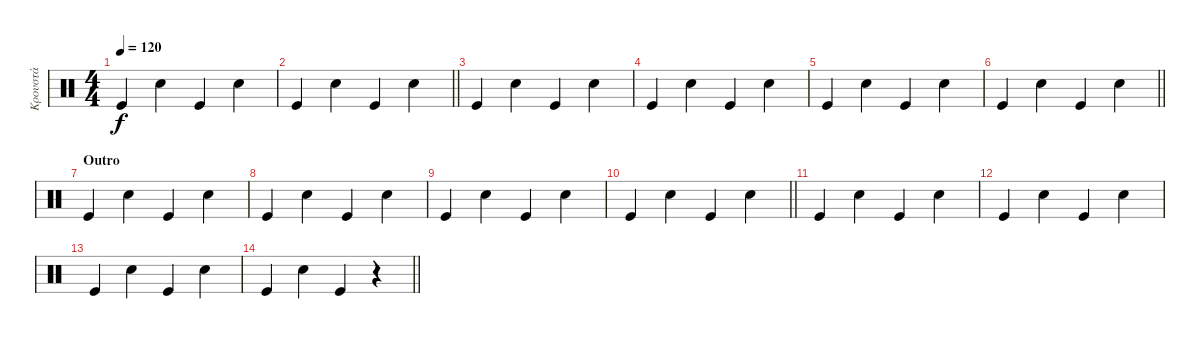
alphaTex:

\track ("Κρουστά" "Κρουστά") {instrument percussion}
\staff {score}
\articulation defaults
\ts (4 4)
\tempo 120
\clef neutral
\ks c "Kick (hit)".4{dy f} "Hand Clap (hit)".4 "Kick (hit)".4 "Hand Clap (hit)".4
|
\barLineRight lightlight "Kick (hit)".4 "Hand Clap (hit)".4 "Kick (hit)".4 "Hand Clap (hit)".4
|
"Kick (hit)".4 "Hand Clap (hit)".4 "Kick (hit)".4 "Hand Clap (hit)".4 |
"Kick (hit)".4 "Hand Clap (hit)".4 "Kick (hit)".4 "Hand Clap (hit)".4 |
"Kick (hit)".4 "Hand Clap (hit)".4 "Kick (hit)".4 "Hand Clap (hit)".4 |
\barLineRight lightlight "Kick (hit)".4 "Hand Clap (hit)".4 "Kick (hit)".4 "Hand Clap (hit)".4
|
\section ("" "Outro")
"Kick (hit)".4 "Hand Clap (hit)".4 "Kick (hit)".4 "Hand Clap (hit)".4 |
"Kick (hit)".4 "Hand Clap (hit)".4 "Kick (hit)".4 "Hand Clap (hit)".4 |
"Kick (hit)".4 "Hand Clap (hit)".4 "Kick (hit)".4 "Hand Clap (hit)".4 |
\barLineRight lightlight "Kick (hit)".4 "Hand Clap (hit)".4 "Kick (hit)".4 "Hand Clap (hit)".4
|
"Kick (hit)".4 "Hand Clap (hit)".4 "Kick (hit)".4 "Hand Clap (hit)".4 |
"Kick (hit)".4 "Hand Clap (hit)".4 "Kick (hit)".4 "Hand Clap (hit)".4 |
"Kick (hit)".4 "Hand Clap (hit)".4 "Kick (hit)".4 "Hand Clap (hit)".4 |
\barLineRight lightlight "Kick (hit)".4 "Hand Clap (hit)".4 "Kick (hit)".4
r.4
